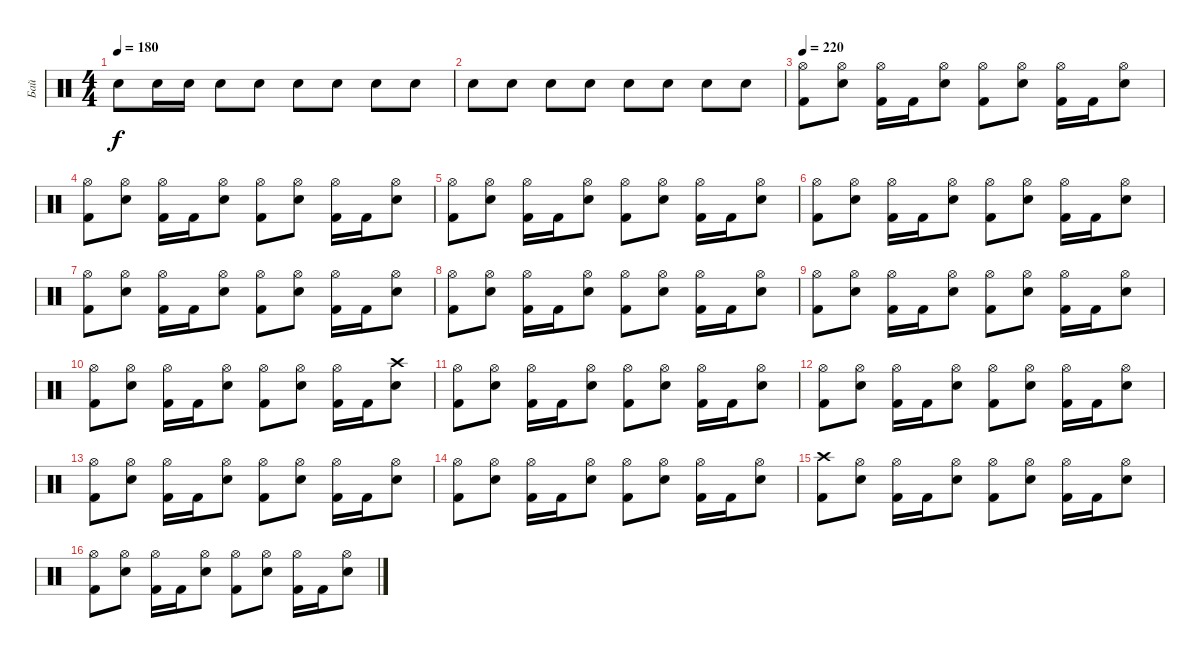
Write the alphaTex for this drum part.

\track ("Бай" "Бай") {instrument percussion}
\staff {score}
\articulation defaults
\ts (4 4)
\tempo 180
\clef neutral
\ks c "Snare (hit) 2".8{dy f} "Snare (hit) 2".16 "Snare (hit) 2".16 "Snare (hit) 2".8 "Snare (hit) 2".8 "Snare (hit) 2".8 "Snare (hit) 2".8 "Snare (hit) 2".8 "Snare (hit) 2".8
|
"Snare (hit) 2".8 "Snare (hit) 2".8 "Snare (hit) 2".8 "Snare (hit) 2".8 "Snare (hit) 2".8 "Snare (hit) 2".8 "Snare (hit) 2".8 "Snare (hit) 2".8 |
\tempo 220
("Hi-Hat (open)" "Kick (hit) 2").8 ("Hi-Hat (open)" "Snare (hit) 2").8 ("Hi-Hat (open)" "Kick (hit) 2").16 "Kick (hit) 2".16 ("Hi-Hat (open)" "Snare (hit) 2").8 ("Hi-Hat (open)" "Kick (hit) 2").8 ("Hi-Hat (open)" "Snare (hit) 2").8 ("Hi-Hat (open)" "Kick (hit) 2").16 "Kick (hit) 2".16 ("Hi-Hat (open)" "Snare (hit) 2").8 |
("Hi-Hat (open)" "Kick (hit) 2").8 ("Hi-Hat (open)" "Snare (hit) 2").8 ("Hi-Hat (open)" "Kick (hit) 2").16 "Kick (hit) 2".16 ("Hi-Hat (open)" "Snare (hit) 2").8 ("Hi-Hat (open)" "Kick (hit) 2").8 ("Hi-Hat (open)" "Snare (hit) 2").8 ("Hi-Hat (open)" "Kick (hit) 2").16 "Kick (hit) 2".16 ("Hi-Hat (open)" "Snare (hit) 2").8 |
("Hi-Hat (open)" "Kick (hit) 2").8 ("Hi-Hat (open)" "Snare (hit) 2").8 ("Hi-Hat (open)" "Kick (hit) 2").16 "Kick (hit) 2".16 ("Hi-Hat (open)" "Snare (hit) 2").8 ("Hi-Hat (open)" "Kick (hit) 2").8 ("Hi-Hat (open)" "Snare (hit) 2").8 ("Hi-Hat (open)" "Kick (hit) 2").16 "Kick (hit) 2".16 ("Hi-Hat (open)" "Snare (hit) 2").8 |
("Hi-Hat (open)" "Kick (hit) 2").8 ("Hi-Hat (open)" "Snare (hit) 2").8 ("Hi-Hat (open)" "Kick (hit) 2").16 "Kick (hit) 2".16 ("Hi-Hat (open)" "Snare (hit) 2").8 ("Hi-Hat (open)" "Kick (hit) 2").8 ("Hi-Hat (open)" "Snare (hit) 2").8 ("Hi-Hat (open)" "Kick (hit) 2").16 "Kick (hit) 2".16 ("Hi-Hat (open)" "Snare (hit) 2").8 |
("Hi-Hat (open)" "Kick (hit) 2").8 ("Hi-Hat (open)" "Snare (hit) 2").8 ("Hi-Hat (open)" "Kick (hit) 2").16 "Kick (hit) 2".16 ("Hi-Hat (open)" "Snare (hit) 2").8 ("Hi-Hat (open)" "Kick (hit) 2").8 ("Hi-Hat (open)" "Snare (hit) 2").8 ("Hi-Hat (open)" "Kick (hit) 2").16 "Kick (hit) 2".16 ("Hi-Hat (open)" "Snare (hit) 2").8 |
("Hi-Hat (open)" "Kick (hit) 2").8 ("Hi-Hat (open)" "Snare (hit) 2").8 ("Hi-Hat (open)" "Kick (hit) 2").16 "Kick (hit) 2".16 ("Hi-Hat (open)" "Snare (hit) 2").8 ("Hi-Hat (open)" "Kick (hit) 2").8 ("Hi-Hat (open)" "Snare (hit) 2").8 ("Hi-Hat (open)" "Kick (hit) 2").16 "Kick (hit) 2".16 ("Hi-Hat (open)" "Snare (hit) 2").8 |
("Hi-Hat (open)" "Kick (hit) 2").8 ("Hi-Hat (open)" "Snare (hit) 2").8 ("Hi-Hat (open)" "Kick (hit) 2").16 "Kick (hit) 2".16 ("Hi-Hat (open)" "Snare (hit) 2").8 ("Hi-Hat (open)" "Kick (hit) 2").8 ("Hi-Hat (open)" "Snare (hit) 2").8 ("Hi-Hat (open)" "Kick (hit) 2").16 "Kick (hit) 2".16 ("Hi-Hat (open)" "Snare (hit) 2").8 |
("Hi-Hat (open)" "Kick (hit) 2").8 ("Hi-Hat (open)" "Snare (hit) 2").8 ("Hi-Hat (open)" "Kick (hit) 2").16 "Kick (hit) 2".16 ("Hi-Hat (open)" "Snare (hit) 2").8 ("Hi-Hat (open)" "Kick (hit) 2").8 ("Hi-Hat (open)" "Snare (hit) 2").8 ("Hi-Hat (open)" "Kick (hit) 2").16 "Kick (hit) 2".16 ("Crash high (hit)" "Snare (hit) 2").8 |
("Hi-Hat (open)" "Kick (hit) 2").8 ("Hi-Hat (open)" "Snare (hit) 2").8 ("Hi-Hat (open)" "Kick (hit) 2").16 "Kick (hit) 2".16 ("Hi-Hat (open)" "Snare (hit) 2").8 ("Hi-Hat (open)" "Kick (hit) 2").8 ("Hi-Hat (open)" "Snare (hit) 2").8 ("Hi-Hat (open)" "Kick (hit) 2").16 "Kick (hit) 2".16 ("Hi-Hat (open)" "Snare (hit) 2").8 |
("Hi-Hat (open)" "Kick (hit) 2").8 ("Hi-Hat (open)" "Snare (hit) 2").8 ("Hi-Hat (open)" "Kick (hit) 2").16 "Kick (hit) 2".16 ("Hi-Hat (open)" "Snare (hit) 2").8 ("Hi-Hat (open)" "Kick (hit) 2").8 ("Hi-Hat (open)" "Snare (hit) 2").8 ("Hi-Hat (open)" "Kick (hit) 2").16 "Kick (hit) 2".16 ("Hi-Hat (open)" "Snare (hit) 2").8 |
("Hi-Hat (open)" "Kick (hit) 2").8 ("Hi-Hat (open)" "Snare (hit) 2").8 ("Hi-Hat (open)" "Kick (hit) 2").16 "Kick (hit) 2".16 ("Hi-Hat (open)" "Snare (hit) 2").8 ("Hi-Hat (open)" "Kick (hit) 2").8 ("Hi-Hat (open)" "Snare (hit) 2").8 ("Hi-Hat (open)" "Kick (hit) 2").16 "Kick (hit) 2".16 ("Hi-Hat (open)" "Snare (hit) 2").8 |
("Hi-Hat (open)" "Kick (hit) 2").8 ("Hi-Hat (open)" "Snare (hit) 2").8 ("Hi-Hat (open)" "Kick (hit) 2").16 "Kick (hit) 2".16 ("Hi-Hat (open)" "Snare (hit) 2").8 ("Hi-Hat (open)" "Kick (hit) 2").8 ("Hi-Hat (open)" "Snare (hit) 2").8 ("Hi-Hat (open)" "Kick (hit) 2").16 "Kick (hit) 2".16 ("Hi-Hat (open)" "Snare (hit) 2").8 |
("Crash high (hit)" "Kick (hit) 2").8 ("Hi-Hat (open)" "Snare (hit) 2").8 ("Hi-Hat (open)" "Kick (hit) 2").16 "Kick (hit) 2".16 ("Hi-Hat (open)" "Snare (hit) 2").8 ("Hi-Hat (open)" "Kick (hit) 2").8 ("Hi-Hat (open)" "Snare (hit) 2").8 ("Hi-Hat (open)" "Kick (hit) 2").16 "Kick (hit) 2".16 ("Hi-Hat (open)" "Snare (hit) 2").8 |
("Hi-Hat (open)" "Kick (hit) 2").8 ("Hi-Hat (open)" "Snare (hit) 2").8 ("Hi-Hat (open)" "Kick (hit) 2").16 "Kick (hit) 2".16 ("Hi-Hat (open)" "Snare (hit) 2").8 ("Hi-Hat (open)" "Kick (hit) 2").8 ("Hi-Hat (open)" "Snare (hit) 2").8 ("Hi-Hat (open)" "Kick (hit) 2").16 "Kick (hit) 2".16 ("Hi-Hat (open)" "Snare (hit) 2").8
